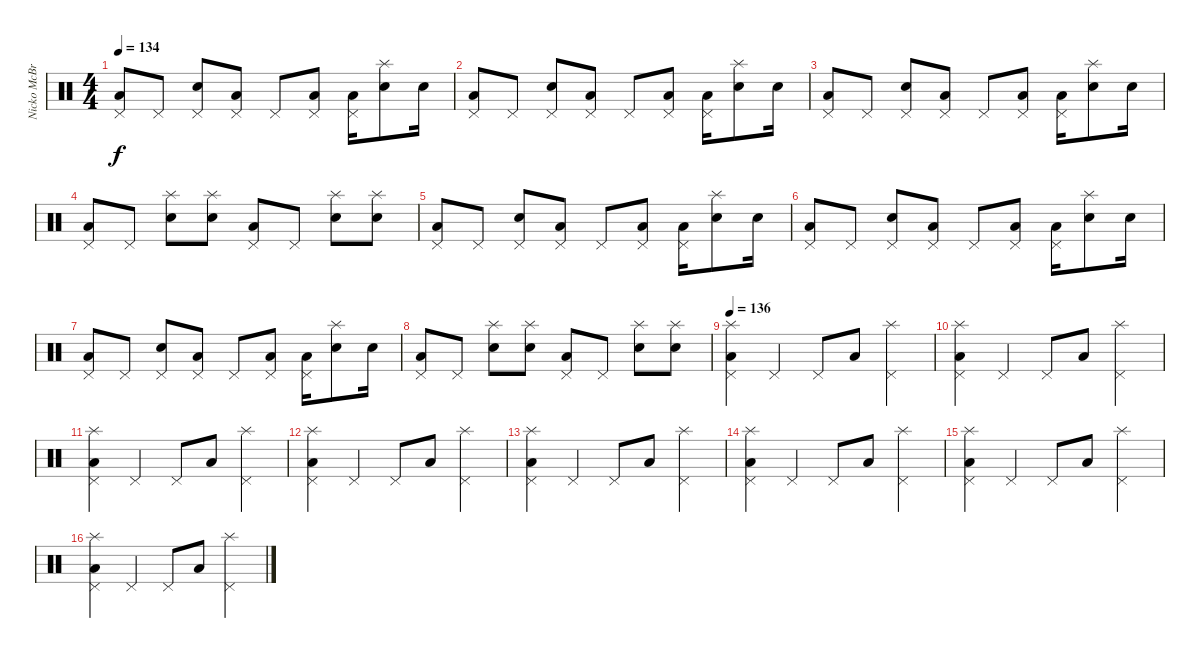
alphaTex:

\track ("Nicko McBrian" "Nicko McBr") {instrument percussion}
\staff {score}
\articulation defaults
\ts (4 4)
\tempo 134
\clef neutral
\ks c
("Low Floor Tom (hit)" "Pedal Hi-Hat (hit)").8{dy f} "Pedal Hi-Hat (hit)".8 ("Electric Snare (hit)" "Pedal Hi-Hat (hit)").8 ("Low Floor Tom (hit)" "Pedal Hi-Hat (hit)").8 "Pedal Hi-Hat (hit)".8 ("Low Floor Tom (hit)" "Pedal Hi-Hat (hit)").8 ("Low Floor Tom (hit)" "Pedal Hi-Hat (hit)").16 ("Electric Snare (hit)" "Splash (hit)").8 "Electric Snare (hit)".16 |
("Low Floor Tom (hit)" "Pedal Hi-Hat (hit)").8 "Pedal Hi-Hat (hit)".8 ("Electric Snare (hit)" "Pedal Hi-Hat (hit)").8 ("Low Floor Tom (hit)" "Pedal Hi-Hat (hit)").8 "Pedal Hi-Hat (hit)".8 ("Low Floor Tom (hit)" "Pedal Hi-Hat (hit)").8 ("Low Floor Tom (hit)" "Pedal Hi-Hat (hit)").16 ("Electric Snare (hit)" "Splash (hit)").8 "Electric Snare (hit)".16 |
("Low Floor Tom (hit)" "Pedal Hi-Hat (hit)").8 "Pedal Hi-Hat (hit)".8 ("Electric Snare (hit)" "Pedal Hi-Hat (hit)").8 ("Low Floor Tom (hit)" "Pedal Hi-Hat (hit)").8 "Pedal Hi-Hat (hit)".8 ("Low Floor Tom (hit)" "Pedal Hi-Hat (hit)").8 ("Low Floor Tom (hit)" "Pedal Hi-Hat (hit)").16 ("Electric Snare (hit)" "Splash (hit)").8 "Electric Snare (hit)".16 |
("Low Floor Tom (hit)" "Pedal Hi-Hat (hit)").8 "Pedal Hi-Hat (hit)".8 ("Electric Snare (hit)" "Splash (hit)").8 ("Electric Snare (hit)" "Splash (hit)").8 ("Low Floor Tom (hit)" "Pedal Hi-Hat (hit)").8 "Pedal Hi-Hat (hit)".8 ("Electric Snare (hit)" "Splash (hit)").8 ("Electric Snare (hit)" "Splash (hit)").8 |
("Low Floor Tom (hit)" "Pedal Hi-Hat (hit)").8 "Pedal Hi-Hat (hit)".8 ("Electric Snare (hit)" "Pedal Hi-Hat (hit)").8 ("Low Floor Tom (hit)" "Pedal Hi-Hat (hit)").8 "Pedal Hi-Hat (hit)".8 ("Low Floor Tom (hit)" "Pedal Hi-Hat (hit)").8 ("Low Floor Tom (hit)" "Pedal Hi-Hat (hit)").16 ("Electric Snare (hit)" "Splash (hit)").8 "Electric Snare (hit)".16 |
("Low Floor Tom (hit)" "Pedal Hi-Hat (hit)").8 "Pedal Hi-Hat (hit)".8 ("Electric Snare (hit)" "Pedal Hi-Hat (hit)").8 ("Low Floor Tom (hit)" "Pedal Hi-Hat (hit)").8 "Pedal Hi-Hat (hit)".8 ("Low Floor Tom (hit)" "Pedal Hi-Hat (hit)").8 ("Low Floor Tom (hit)" "Pedal Hi-Hat (hit)").16 ("Electric Snare (hit)" "Splash (hit)").8 "Electric Snare (hit)".16 |
("Low Floor Tom (hit)" "Pedal Hi-Hat (hit)").8 "Pedal Hi-Hat (hit)".8 ("Electric Snare (hit)" "Pedal Hi-Hat (hit)").8 ("Low Floor Tom (hit)" "Pedal Hi-Hat (hit)").8 "Pedal Hi-Hat (hit)".8 ("Low Floor Tom (hit)" "Pedal Hi-Hat (hit)").8 ("Low Floor Tom (hit)" "Pedal Hi-Hat (hit)").16 ("Electric Snare (hit)" "Splash (hit)").8 "Electric Snare (hit)".16 |
("Low Floor Tom (hit)" "Pedal Hi-Hat (hit)").8 "Pedal Hi-Hat (hit)".8 ("Electric Snare (hit)" "Splash (hit)").8 ("Electric Snare (hit)" "Splash (hit)").8 ("Low Floor Tom (hit)" "Pedal Hi-Hat (hit)").8 "Pedal Hi-Hat (hit)".8 ("Electric Snare (hit)" "Splash (hit)").8 ("Electric Snare (hit)" "Splash (hit)").8 |
\tempo 136
("Low Floor Tom (hit)" "Pedal Hi-Hat (hit)" "Splash (hit)").4 "Pedal Hi-Hat (hit)".4 "Pedal Hi-Hat (hit)".8 "Low Floor Tom (hit)".8 ("Pedal Hi-Hat (hit)" "Splash (hit)").4 |
("Low Floor Tom (hit)" "Pedal Hi-Hat (hit)" "Splash (hit)").4 "Pedal Hi-Hat (hit)".4 "Pedal Hi-Hat (hit)".8 "Low Floor Tom (hit)".8 ("Pedal Hi-Hat (hit)" "Splash (hit)").4 |
("Low Floor Tom (hit)" "Pedal Hi-Hat (hit)" "Splash (hit)").4 "Pedal Hi-Hat (hit)".4 "Pedal Hi-Hat (hit)".8 "Low Floor Tom (hit)".8 ("Pedal Hi-Hat (hit)" "Splash (hit)").4 |
("Low Floor Tom (hit)" "Pedal Hi-Hat (hit)" "Splash (hit)").4 "Pedal Hi-Hat (hit)".4 "Pedal Hi-Hat (hit)".8 "Low Floor Tom (hit)".8 ("Pedal Hi-Hat (hit)" "Splash (hit)").4 |
("Low Floor Tom (hit)" "Pedal Hi-Hat (hit)" "Splash (hit)").4 "Pedal Hi-Hat (hit)".4 "Pedal Hi-Hat (hit)".8 "Low Floor Tom (hit)".8 ("Pedal Hi-Hat (hit)" "Splash (hit)").4 |
("Low Floor Tom (hit)" "Pedal Hi-Hat (hit)" "Splash (hit)").4 "Pedal Hi-Hat (hit)".4 "Pedal Hi-Hat (hit)".8 "Low Floor Tom (hit)".8 ("Pedal Hi-Hat (hit)" "Splash (hit)").4 |
("Low Floor Tom (hit)" "Pedal Hi-Hat (hit)" "Splash (hit)").4 "Pedal Hi-Hat (hit)".4 "Pedal Hi-Hat (hit)".8 "Low Floor Tom (hit)".8 ("Pedal Hi-Hat (hit)" "Splash (hit)").4 |
("Low Floor Tom (hit)" "Pedal Hi-Hat (hit)" "Splash (hit)").4 "Pedal Hi-Hat (hit)".4 "Pedal Hi-Hat (hit)".8 "Low Floor Tom (hit)".8 ("Pedal Hi-Hat (hit)" "Splash (hit)").4
